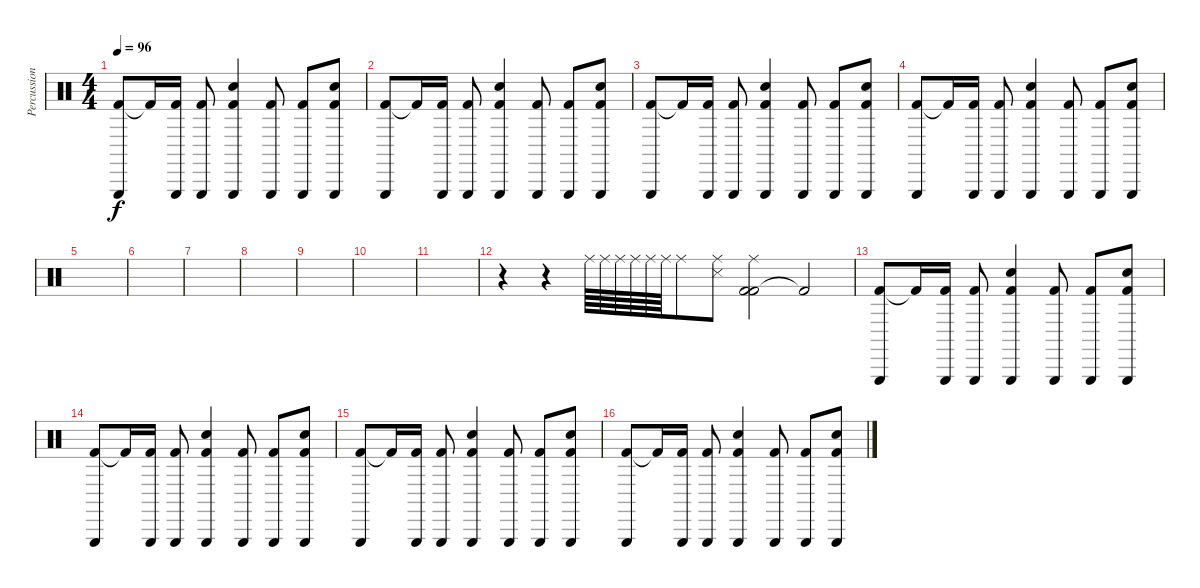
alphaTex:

\track ("Percussion" "Percussion") {instrument percussion}
\staff {score}
\articulation defaults
\ts (4 4)
\tempo 96
\clef neutral
\ks c
("Kick (hit) 2" "Triangle (hit)").8{dy f} "Kick (hit) 2"{t}.16 ("Kick (hit) 2" "Triangle (hit)").16 ("Kick (hit) 2" "Triangle (hit)").8 ("Kick (hit) 2" "Snare (hit) 2" "Triangle (hit)").4 ("Kick (hit) 2" "Triangle (hit)").8 ("Kick (hit) 2" "Triangle (hit)").8 ("Kick (hit) 2" "Snare (hit) 2" "Triangle (hit)").8 |
("Kick (hit) 2" "Triangle (hit)").8 "Kick (hit) 2"{t}.16 ("Kick (hit) 2" "Triangle (hit)").16 ("Kick (hit) 2" "Triangle (hit)").8 ("Kick (hit) 2" "Snare (hit) 2" "Triangle (hit)").4 ("Kick (hit) 2" "Triangle (hit)").8 ("Kick (hit) 2" "Triangle (hit)").8 ("Kick (hit) 2" "Snare (hit) 2" "Triangle (hit)").8 |
("Kick (hit) 2" "Triangle (hit)").8 "Kick (hit) 2"{t}.16 ("Kick (hit) 2" "Triangle (hit)").16 ("Kick (hit) 2" "Triangle (hit)").8 ("Kick (hit) 2" "Snare (hit) 2" "Triangle (hit)").4 ("Kick (hit) 2" "Triangle (hit)").8 ("Kick (hit) 2" "Triangle (hit)").8 ("Kick (hit) 2" "Snare (hit) 2" "Triangle (hit)").8 |
("Kick (hit) 2" "Triangle (hit)").8 "Kick (hit) 2"{t}.16 ("Kick (hit) 2" "Triangle (hit)").16 ("Kick (hit) 2" "Triangle (hit)").8 ("Kick (hit) 2" "Snare (hit) 2" "Triangle (hit)").4 ("Kick (hit) 2" "Triangle (hit)").8 ("Kick (hit) 2" "Triangle (hit)").8 ("Kick (hit) 2" "Snare (hit) 2" "Triangle (hit)").8 |
|
|
|
|
|
|
|
r.4 r.4 "Ride (middle)".64 "Ride (middle)".64 "Ride (middle)".64 "Ride (middle)".64 "Ride (middle)".64 "Ride (middle)".64 "Ride (middle)".8 ("Snare (side stick) 3" "Ride (middle)").8 ("Kick (hit) 2" "Kick (hit) 2" "Ride (middle)").2 "Kick (hit) 2"{t}.2 |
("Kick (hit) 2" "Triangle (hit)").8 "Kick (hit) 2"{t}.16 ("Kick (hit) 2" "Triangle (hit)").16 ("Kick (hit) 2" "Triangle (hit)").8 ("Kick (hit) 2" "Snare (hit) 2" "Triangle (hit)").4 ("Kick (hit) 2" "Triangle (hit)").8 ("Kick (hit) 2" "Triangle (hit)").8 ("Kick (hit) 2" "Snare (hit) 2" "Triangle (hit)").8 |
("Kick (hit) 2" "Triangle (hit)").8 "Kick (hit) 2"{t}.16 ("Kick (hit) 2" "Triangle (hit)").16 ("Kick (hit) 2" "Triangle (hit)").8 ("Kick (hit) 2" "Snare (hit) 2" "Triangle (hit)").4 ("Kick (hit) 2" "Triangle (hit)").8 ("Kick (hit) 2" "Triangle (hit)").8 ("Kick (hit) 2" "Snare (hit) 2" "Triangle (hit)").8 |
("Kick (hit) 2" "Triangle (hit)").8 "Kick (hit) 2"{t}.16 ("Kick (hit) 2" "Triangle (hit)").16 ("Kick (hit) 2" "Triangle (hit)").8 ("Kick (hit) 2" "Snare (hit) 2" "Triangle (hit)").4 ("Kick (hit) 2" "Triangle (hit)").8 ("Kick (hit) 2" "Triangle (hit)").8 ("Kick (hit) 2" "Snare (hit) 2" "Triangle (hit)").8 |
("Kick (hit) 2" "Triangle (hit)").8 "Kick (hit) 2"{t}.16 ("Kick (hit) 2" "Triangle (hit)").16 ("Kick (hit) 2" "Triangle (hit)").8 ("Kick (hit) 2" "Snare (hit) 2" "Triangle (hit)").4 ("Kick (hit) 2" "Triangle (hit)").8 ("Kick (hit) 2" "Triangle (hit)").8 ("Kick (hit) 2" "Snare (hit) 2" "Triangle (hit)").8
